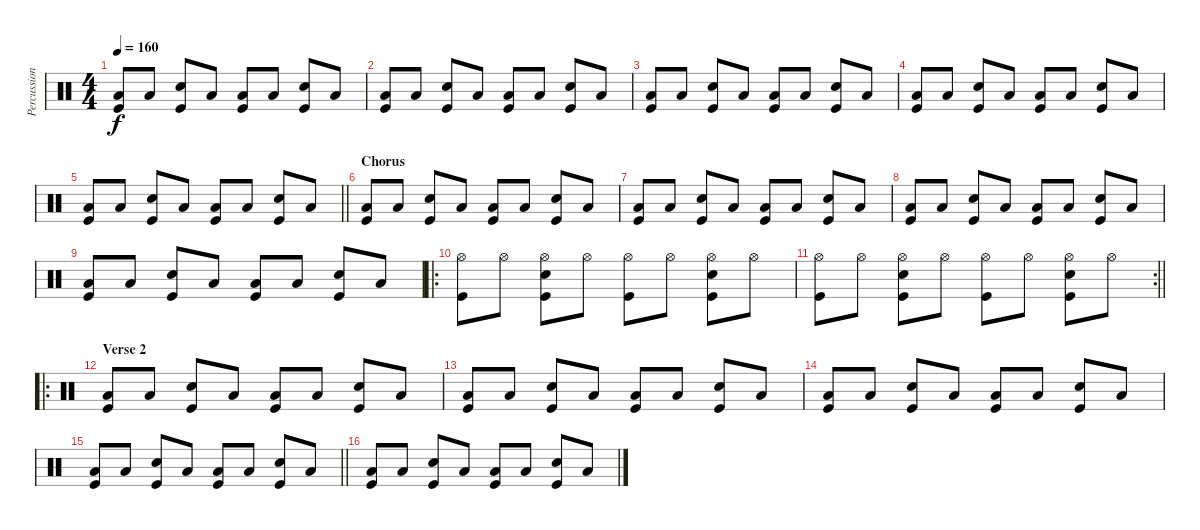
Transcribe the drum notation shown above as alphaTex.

\track ("Percussion" "Percussion") {instrument percussion}
\staff {score}
\articulation defaults
\ts (4 4)
\tempo 160
\clef neutral
\ks c
("Low Floor Tom (hit)" "Kick (hit)").8{dy f} "Low Floor Tom (hit)".8 ("Snare (hit) 2" "Kick (hit)").8 "Low Floor Tom (hit)".8 ("Low Floor Tom (hit)" "Kick (hit)").8 "Low Floor Tom (hit)".8 ("Snare (hit) 2" "Kick (hit)").8 "Low Floor Tom (hit)".8 |
("Low Floor Tom (hit)" "Kick (hit)").8 "Low Floor Tom (hit)".8 ("Snare (hit) 2" "Kick (hit)").8 "Low Floor Tom (hit)".8 ("Low Floor Tom (hit)" "Kick (hit)").8 "Low Floor Tom (hit)".8 ("Snare (hit) 2" "Kick (hit)").8 "Low Floor Tom (hit)".8 |
("Low Floor Tom (hit)" "Kick (hit)").8 "Low Floor Tom (hit)".8 ("Snare (hit) 2" "Kick (hit)").8 "Low Floor Tom (hit)".8 ("Low Floor Tom (hit)" "Kick (hit)").8 "Low Floor Tom (hit)".8 ("Snare (hit) 2" "Kick (hit)").8 "Low Floor Tom (hit)".8 |
("Low Floor Tom (hit)" "Kick (hit)").8 "Low Floor Tom (hit)".8 ("Snare (hit) 2" "Kick (hit)").8 "Low Floor Tom (hit)".8 ("Low Floor Tom (hit)" "Kick (hit)").8 "Low Floor Tom (hit)".8 ("Snare (hit) 2" "Kick (hit)").8 "Low Floor Tom (hit)".8 |
\barLineRight lightlight
("Low Floor Tom (hit)" "Kick (hit)").8 "Low Floor Tom (hit)".8 ("Snare (hit) 2" "Kick (hit)").8 "Low Floor Tom (hit)".8 ("Low Floor Tom (hit)" "Kick (hit)").8 "Low Floor Tom (hit)".8 ("Snare (hit) 2" "Kick (hit)").8 "Low Floor Tom (hit)".8 |
\section ("" "Chorus")
("Low Floor Tom (hit)" "Kick (hit)").8 "Low Floor Tom (hit)".8 ("Snare (hit) 2" "Kick (hit)").8 "Low Floor Tom (hit)".8 ("Low Floor Tom (hit)" "Kick (hit)").8 "Low Floor Tom (hit)".8 ("Snare (hit) 2" "Kick (hit)").8 "Low Floor Tom (hit)".8 |
("Low Floor Tom (hit)" "Kick (hit)").8 "Low Floor Tom (hit)".8 ("Snare (hit) 2" "Kick (hit)").8 "Low Floor Tom (hit)".8 ("Low Floor Tom (hit)" "Kick (hit)").8 "Low Floor Tom (hit)".8 ("Snare (hit) 2" "Kick (hit)").8 "Low Floor Tom (hit)".8 |
("Low Floor Tom (hit)" "Kick (hit)").8 "Low Floor Tom (hit)".8 ("Snare (hit) 2" "Kick (hit)").8 "Low Floor Tom (hit)".8 ("Low Floor Tom (hit)" "Kick (hit)").8 "Low Floor Tom (hit)".8 ("Snare (hit) 2" "Kick (hit)").8 "Low Floor Tom (hit)".8 |
("Low Floor Tom (hit)" "Kick (hit)").8 "Low Floor Tom (hit)".8 ("Snare (hit) 2" "Kick (hit)").8 "Low Floor Tom (hit)".8 ("Low Floor Tom (hit)" "Kick (hit)").8 "Low Floor Tom (hit)".8 ("Snare (hit) 2" "Kick (hit)").8 "Low Floor Tom (hit)".8 |
\ro
("Hi-Hat (open)" "Kick (hit)").8 "Hi-Hat (open)".8 ("Hi-Hat (open)" "Snare (hit) 2" "Kick (hit)").8 "Hi-Hat (open)".8 ("Hi-Hat (open)" "Kick (hit)").8 "Hi-Hat (open)".8 ("Hi-Hat (open)" "Snare (hit) 2" "Kick (hit)").8 "Hi-Hat (open)".8 |
\rc 2
\barLineRight lightlight
("Hi-Hat (open)" "Kick (hit)").8 "Hi-Hat (open)".8 ("Hi-Hat (open)" "Snare (hit) 2" "Kick (hit)").8 "Hi-Hat (open)".8 ("Hi-Hat (open)" "Kick (hit)").8 "Hi-Hat (open)".8 ("Hi-Hat (open)" "Snare (hit) 2" "Kick (hit)").8 "Hi-Hat (open)".8 |
\ro
\section ("" "Verse 2")
("Low Floor Tom (hit)" "Kick (hit)").8 "Low Floor Tom (hit)".8 ("Snare (hit) 2" "Kick (hit)").8 "Low Floor Tom (hit)".8 ("Low Floor Tom (hit)" "Kick (hit)").8 "Low Floor Tom (hit)".8 ("Snare (hit) 2" "Kick (hit)").8 "Low Floor Tom (hit)".8 |
("Low Floor Tom (hit)" "Kick (hit)").8 "Low Floor Tom (hit)".8 ("Snare (hit) 2" "Kick (hit)").8 "Low Floor Tom (hit)".8 ("Low Floor Tom (hit)" "Kick (hit)").8 "Low Floor Tom (hit)".8 ("Snare (hit) 2" "Kick (hit)").8 "Low Floor Tom (hit)".8 |
("Low Floor Tom (hit)" "Kick (hit)").8 "Low Floor Tom (hit)".8 ("Snare (hit) 2" "Kick (hit)").8 "Low Floor Tom (hit)".8 ("Low Floor Tom (hit)" "Kick (hit)").8 "Low Floor Tom (hit)".8 ("Snare (hit) 2" "Kick (hit)").8 "Low Floor Tom (hit)".8 |
\barLineRight lightlight
("Low Floor Tom (hit)" "Kick (hit)").8 "Low Floor Tom (hit)".8 ("Snare (hit) 2" "Kick (hit)").8 "Low Floor Tom (hit)".8 ("Low Floor Tom (hit)" "Kick (hit)").8 "Low Floor Tom (hit)".8 ("Snare (hit) 2" "Kick (hit)").8 "Low Floor Tom (hit)".8 |
("Low Floor Tom (hit)" "Kick (hit)").8 "Low Floor Tom (hit)".8 ("Snare (hit) 2" "Kick (hit)").8 "Low Floor Tom (hit)".8 ("Low Floor Tom (hit)" "Kick (hit)").8 "Low Floor Tom (hit)".8 ("Snare (hit) 2" "Kick (hit)").8 "Low Floor Tom (hit)".8
